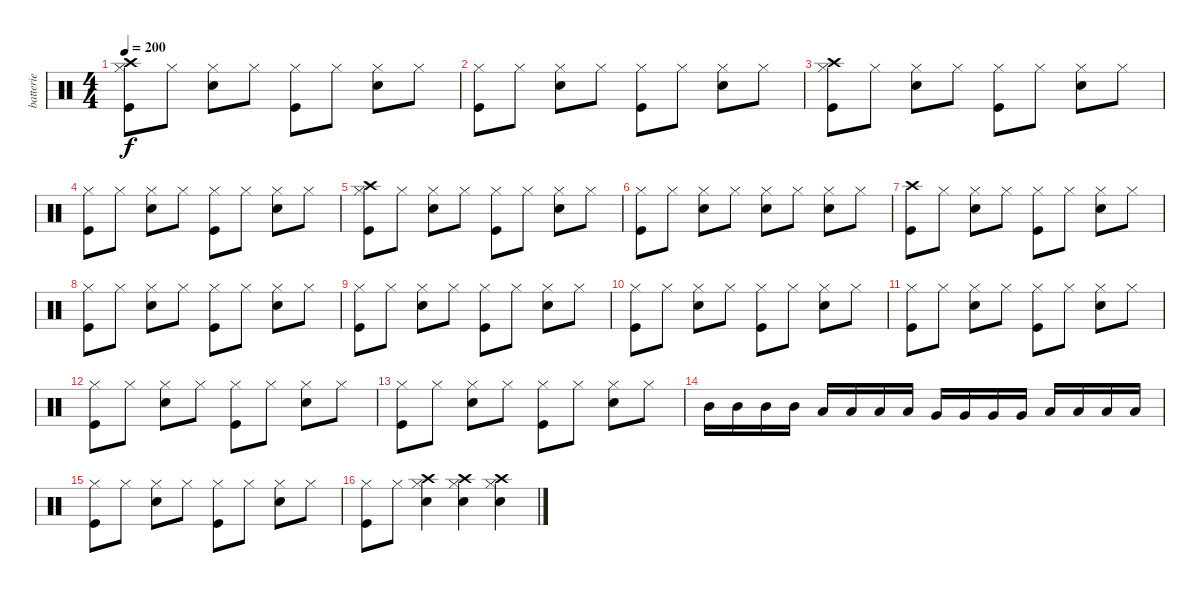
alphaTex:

\track ("batterie" "batterie") {instrument percussion}
\staff {score}
\articulation defaults
\ts (4 4)
\tempo 200
\clef neutral
\ks c
("Hi-Hat (closed)" "Crash high (hit)" "Kick (hit)").8{dy f} "Hi-Hat (closed)".8 ("Hi-Hat (closed)" "Electric Snare (hit)").8 "Hi-Hat (closed)".8 ("Hi-Hat (closed)" "Kick (hit)").8 "Hi-Hat (closed)".8 ("Hi-Hat (closed)" "Electric Snare (hit)").8 "Hi-Hat (closed)".8 |
("Hi-Hat (closed)" "Kick (hit)").8 "Hi-Hat (closed)".8 ("Hi-Hat (closed)" "Electric Snare (hit)").8 "Hi-Hat (closed)".8 ("Hi-Hat (closed)" "Kick (hit)").8 "Hi-Hat (closed)".8 ("Hi-Hat (closed)" "Electric Snare (hit)").8 "Hi-Hat (closed)".8 |
("Hi-Hat (closed)" "Crash high (hit)" "Kick (hit)").8 "Hi-Hat (closed)".8 ("Hi-Hat (closed)" "Electric Snare (hit)").8 "Hi-Hat (closed)".8 ("Hi-Hat (closed)" "Kick (hit)").8 "Hi-Hat (closed)".8 ("Hi-Hat (closed)" "Electric Snare (hit)").8 "Hi-Hat (closed)".8 |
("Hi-Hat (closed)" "Kick (hit)").8 "Hi-Hat (closed)".8 ("Hi-Hat (closed)" "Electric Snare (hit)").8 "Hi-Hat (closed)".8 ("Hi-Hat (closed)" "Kick (hit)").8 "Hi-Hat (closed)".8 ("Hi-Hat (closed)" "Electric Snare (hit)").8 "Hi-Hat (closed)".8 |
("Hi-Hat (closed)" "Crash high (hit)" "Kick (hit)").8 "Hi-Hat (closed)".8 ("Hi-Hat (closed)" "Electric Snare (hit)").8 "Hi-Hat (closed)".8 ("Hi-Hat (closed)" "Kick (hit)").8 "Hi-Hat (closed)".8 ("Hi-Hat (closed)" "Electric Snare (hit)").8 "Hi-Hat (closed)".8 |
("Hi-Hat (closed)" "Kick (hit)").8 "Hi-Hat (closed)".8 ("Hi-Hat (closed)" "Electric Snare (hit)").8 "Hi-Hat (closed)".8 ("Hi-Hat (closed)" "Electric Snare (hit)").8 "Hi-Hat (closed)".8 ("Hi-Hat (closed)" "Electric Snare (hit)").8 "Hi-Hat (closed)".8 |
("Crash high (hit)" "Kick (hit)").8 "Hi-Hat (closed)".8 ("Hi-Hat (closed)" "Electric Snare (hit)").8 "Hi-Hat (closed)".8 ("Hi-Hat (closed)" "Kick (hit)").8 "Hi-Hat (closed)".8 ("Hi-Hat (closed)" "Electric Snare (hit)").8 "Hi-Hat (closed)".8 |
("Hi-Hat (closed)" "Kick (hit)").8 "Hi-Hat (closed)".8 ("Hi-Hat (closed)" "Electric Snare (hit)").8 "Hi-Hat (closed)".8 ("Hi-Hat (closed)" "Kick (hit)").8 "Hi-Hat (closed)".8 ("Hi-Hat (closed)" "Electric Snare (hit)").8 "Hi-Hat (closed)".8 |
("Hi-Hat (closed)" "Kick (hit)").8 "Hi-Hat (closed)".8 ("Hi-Hat (closed)" "Electric Snare (hit)").8 "Hi-Hat (closed)".8 ("Hi-Hat (closed)" "Kick (hit)").8 "Hi-Hat (closed)".8 ("Hi-Hat (closed)" "Electric Snare (hit)").8 "Hi-Hat (closed)".8 |
("Hi-Hat (closed)" "Kick (hit)").8 "Hi-Hat (closed)".8 ("Hi-Hat (closed)" "Electric Snare (hit)").8 "Hi-Hat (closed)".8 ("Hi-Hat (closed)" "Kick (hit)").8 "Hi-Hat (closed)".8 ("Hi-Hat (closed)" "Electric Snare (hit)").8 "Hi-Hat (closed)".8 |
("Hi-Hat (closed)" "Kick (hit)").8 "Hi-Hat (closed)".8 ("Hi-Hat (closed)" "Electric Snare (hit)").8 "Hi-Hat (closed)".8 ("Hi-Hat (closed)" "Kick (hit)").8 "Hi-Hat (closed)".8 ("Hi-Hat (closed)" "Electric Snare (hit)").8 "Hi-Hat (closed)".8 |
("Hi-Hat (closed)" "Kick (hit)").8 "Hi-Hat (closed)".8 ("Hi-Hat (closed)" "Electric Snare (hit)").8 "Hi-Hat (closed)".8 ("Hi-Hat (closed)" "Kick (hit)").8 "Hi-Hat (closed)".8 ("Hi-Hat (closed)" "Electric Snare (hit)").8 "Hi-Hat (closed)".8 |
("Hi-Hat (closed)" "Kick (hit)").8 "Hi-Hat (closed)".8 ("Hi-Hat (closed)" "Electric Snare (hit)").8 "Hi-Hat (closed)".8 ("Hi-Hat (closed)" "Kick (hit)").8 "Hi-Hat (closed)".8 ("Hi-Hat (closed)" "Electric Snare (hit)").8 "Hi-Hat (closed)".8 |
"Mid Tom (hit)".16 "Mid Tom (hit)".16 "Mid Tom (hit)".16 "Mid Tom (hit)".16 "Low Tom (hit)".16 "Low Tom (hit)".16 "Low Tom (hit)".16 "Low Tom (hit)".16 "Very Low Tom (hit)".16 "Very Low Tom (hit)".16 "Very Low Tom (hit)".16 "Very Low Tom (hit)".16 "Low Floor Tom (hit)".16 "Low Floor Tom (hit)".16 "Low Floor Tom (hit)".16 "Low Floor Tom (hit)".16 |
("Hi-Hat (closed)" "Kick (hit)").8 "Hi-Hat (closed)".8 ("Hi-Hat (closed)" "Electric Snare (hit)").8 "Hi-Hat (closed)".8 ("Hi-Hat (closed)" "Kick (hit)").8 "Hi-Hat (closed)".8 ("Hi-Hat (closed)" "Electric Snare (hit)").8 "Hi-Hat (closed)".8 |
("Hi-Hat (closed)" "Kick (hit)").8 "Hi-Hat (closed)".8 ("Hi-Hat (closed)" "Electric Snare (hit)" "Crash high (hit)").4 ("Hi-Hat (closed)" "Electric Snare (hit)" "Crash high (hit)").4 ("Hi-Hat (closed)" "Electric Snare (hit)" "Crash high (hit)").4
